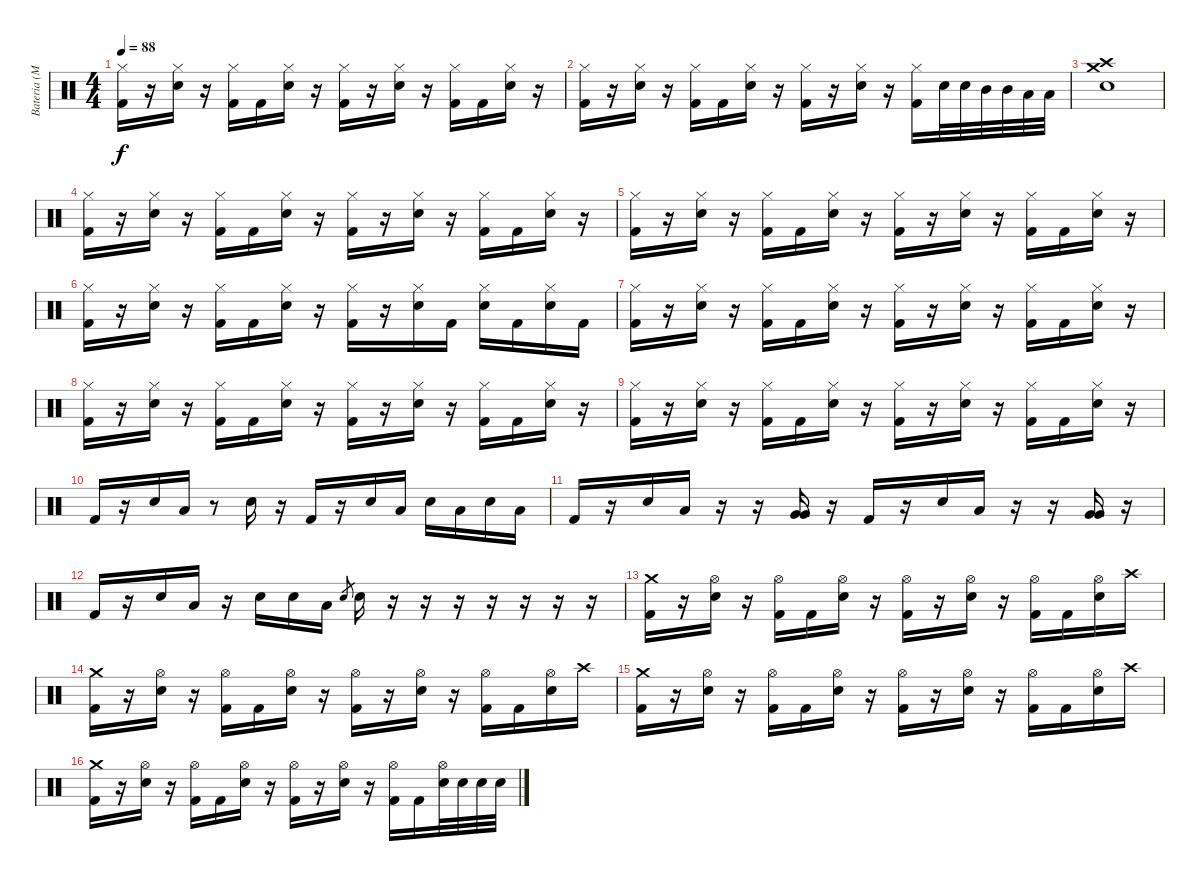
\track ("Bateria (Matt)" "Bateria (M") {instrument percussion}
\staff {score}
\articulation defaults
\ts (4 4)
\tempo 88
\clef neutral
\ks c
("Hi-Hat (closed)" "Kick (hit) 2").16{dy f} r.16 ("Hi-Hat (closed)" "Electric Snare (hit)").16 r.16 ("Hi-Hat (closed)" "Kick (hit) 2").16 "Kick (hit) 2".16 ("Hi-Hat (closed)" "Electric Snare (hit)").16 r.16 ("Hi-Hat (closed)" "Kick (hit) 2").16 r.16 ("Hi-Hat (closed)" "Electric Snare (hit)").16 r.16 ("Hi-Hat (closed)" "Kick (hit) 2").16 "Kick (hit) 2".16 ("Hi-Hat (closed)" "Electric Snare (hit)").16 r.16 |
("Hi-Hat (closed)" "Kick (hit) 2").16 r.16 ("Hi-Hat (closed)" "Electric Snare (hit)").16 r.16 ("Hi-Hat (closed)" "Kick (hit) 2").16 "Kick (hit) 2".16 ("Hi-Hat (closed)" "Electric Snare (hit)").16 r.16 ("Hi-Hat (closed)" "Kick (hit) 2").16 r.16 ("Hi-Hat (closed)" "Electric Snare (hit)").16 r.16 ("Hi-Hat (closed)" "Kick (hit) 2").16 "Electric Snare (hit)".32 "Electric Snare (hit)".32 "Mid Tom (hit)".32 "Mid Tom (hit)".32 "Low Tom (hit)".32 "Low Tom (hit)".32 |
("Crash medium (hit)" "Crash high (hit)" "Electric Snare (hit)").1 |
("Hi-Hat (closed)" "Kick (hit) 2").16 r.16 ("Hi-Hat (closed)" "Electric Snare (hit)").16 r.16 ("Hi-Hat (closed)" "Kick (hit) 2").16 "Kick (hit) 2".16 ("Hi-Hat (closed)" "Electric Snare (hit)").16 r.16 ("Hi-Hat (closed)" "Kick (hit) 2").16 r.16 ("Hi-Hat (closed)" "Electric Snare (hit)").16 r.16 ("Hi-Hat (closed)" "Kick (hit) 2").16 "Kick (hit) 2".16 ("Hi-Hat (closed)" "Electric Snare (hit)").16 r.16 |
("Hi-Hat (closed)" "Kick (hit) 2").16 r.16 ("Hi-Hat (closed)" "Electric Snare (hit)").16 r.16 ("Hi-Hat (closed)" "Kick (hit) 2").16 "Kick (hit) 2".16 ("Hi-Hat (closed)" "Electric Snare (hit)").16 r.16 ("Hi-Hat (closed)" "Kick (hit) 2").16 r.16 ("Hi-Hat (closed)" "Electric Snare (hit)").16 r.16 ("Hi-Hat (closed)" "Kick (hit) 2").16 "Kick (hit) 2".16 ("Hi-Hat (closed)" "Electric Snare (hit)").16 r.16 |
("Hi-Hat (closed)" "Kick (hit) 2").16 r.16 ("Hi-Hat (closed)" "Electric Snare (hit)").16 r.16 ("Hi-Hat (closed)" "Kick (hit) 2").16 "Kick (hit) 2".16 ("Hi-Hat (closed)" "Electric Snare (hit)").16 r.16 ("Hi-Hat (closed)" "Kick (hit) 2").16 r.16 ("Hi-Hat (closed)" "Electric Snare (hit)").16 "Kick (hit) 2".16 ("Hi-Hat (closed)" "Electric Snare (hit)").16 "Kick (hit) 2".16 ("Hi-Hat (closed)" "Electric Snare (hit)").16 "Kick (hit) 2".16 |
("Hi-Hat (closed)" "Kick (hit) 2").16 r.16 ("Hi-Hat (closed)" "Electric Snare (hit)").16 r.16 ("Hi-Hat (closed)" "Kick (hit) 2").16 "Kick (hit) 2".16 ("Hi-Hat (closed)" "Electric Snare (hit)").16 r.16 ("Hi-Hat (closed)" "Kick (hit) 2").16 r.16 ("Hi-Hat (closed)" "Electric Snare (hit)").16 r.16 ("Hi-Hat (closed)" "Kick (hit) 2").16 "Kick (hit) 2".16 ("Hi-Hat (closed)" "Electric Snare (hit)").16 r.16 |
("Hi-Hat (closed)" "Kick (hit) 2").16 r.16 ("Hi-Hat (closed)" "Electric Snare (hit)").16 r.16 ("Hi-Hat (closed)" "Kick (hit) 2").16 "Kick (hit) 2".16 ("Hi-Hat (closed)" "Electric Snare (hit)").16 r.16 ("Hi-Hat (closed)" "Kick (hit) 2").16 r.16 ("Hi-Hat (closed)" "Electric Snare (hit)").16 r.16 ("Hi-Hat (closed)" "Kick (hit) 2").16 "Kick (hit) 2".16 ("Hi-Hat (closed)" "Electric Snare (hit)").16 r.16 |
("Hi-Hat (closed)" "Kick (hit) 2").16 r.16 ("Hi-Hat (closed)" "Electric Snare (hit)").16 r.16 ("Hi-Hat (closed)" "Kick (hit) 2").16 "Kick (hit) 2".16 ("Hi-Hat (closed)" "Electric Snare (hit)").16 r.16 ("Hi-Hat (closed)" "Kick (hit) 2").16 r.16 ("Hi-Hat (closed)" "Electric Snare (hit)").16 r.16 ("Hi-Hat (closed)" "Kick (hit) 2").16 "Kick (hit) 2".16 ("Hi-Hat (closed)" "Electric Snare (hit)").16 r.16 |
"Kick (hit) 2".16 r.16 "Electric Snare (hit)".16 "Low Tom (hit)".16 r.8 "Electric Snare (hit)".16 r.16 "Kick (hit) 2".16 r.16 "Electric Snare (hit)".16 "Low Tom (hit)".16 "Electric Snare (hit)".16 "Low Tom (hit)".16 "Electric Snare (hit)".16 "Low Tom (hit)".16 |
"Kick (hit) 2".16 r.16 "Electric Snare (hit)".16 "Low Tom (hit)".16 r.16 r.16 ("Very Low Tom (hit)" "Very Low Tom (hit)").16 r.16 "Kick (hit) 2".16 r.16 "Electric Snare (hit)".16 "Low Tom (hit)".16 r.16 r.16 ("Very Low Tom (hit)" "Very Low Tom (hit)").16 r.16 |
"Kick (hit) 2".16 r.16 "Electric Snare (hit)".16 "Low Tom (hit)".16 r.16 "Electric Snare (hit)".16 "Electric Snare (hit)".16 "Low Tom (hit)".16 "Electric Snare (hit)".8{gr} "Electric Snare (hit)".16 r.16 r.16 r.16 r.16 r.16 r.16 r.16 |
("Crash medium (hit)" "Kick (hit) 2").16 r.16 ("Hi-Hat (open)" "Electric Snare (hit)").16 r.16 ("Hi-Hat (open)" "Kick (hit) 2").16 "Kick (hit) 2".16 ("Hi-Hat (open)" "Electric Snare (hit)").16 r.16 ("Hi-Hat (open)" "Kick (hit) 2").16 r.16 ("Hi-Hat (open)" "Electric Snare (hit)").16 r.16 ("Hi-Hat (open)" "Kick (hit) 2").16 "Kick (hit) 2".16 ("Hi-Hat (open)" "Electric Snare (hit)").16 "Crash high (hit)".16 |
("Crash medium (hit)" "Kick (hit) 2").16 r.16 ("Hi-Hat (open)" "Electric Snare (hit)").16 r.16 ("Hi-Hat (open)" "Kick (hit) 2").16 "Kick (hit) 2".16 ("Hi-Hat (open)" "Electric Snare (hit)").16 r.16 ("Hi-Hat (open)" "Kick (hit) 2").16 r.16 ("Hi-Hat (open)" "Electric Snare (hit)").16 r.16 ("Hi-Hat (open)" "Kick (hit) 2").16 "Kick (hit) 2".16 ("Hi-Hat (open)" "Electric Snare (hit)").16 "Crash high (hit)".16 |
("Crash medium (hit)" "Kick (hit) 2").16 r.16 ("Hi-Hat (open)" "Electric Snare (hit)").16 r.16 ("Hi-Hat (open)" "Kick (hit) 2").16 "Kick (hit) 2".16 ("Hi-Hat (open)" "Electric Snare (hit)").16 r.16 ("Hi-Hat (open)" "Kick (hit) 2").16 r.16 ("Hi-Hat (open)" "Electric Snare (hit)").16 r.16 ("Hi-Hat (open)" "Kick (hit) 2").16 "Kick (hit) 2".16 ("Hi-Hat (open)" "Electric Snare (hit)").16 "Crash high (hit)".16 |
("Crash medium (hit)" "Kick (hit) 2").16 r.16 ("Hi-Hat (open)" "Electric Snare (hit)").16 r.16 ("Hi-Hat (open)" "Kick (hit) 2").16 "Kick (hit) 2".16 ("Hi-Hat (open)" "Electric Snare (hit)").16 r.16 ("Hi-Hat (open)" "Kick (hit) 2").16 r.16 ("Hi-Hat (open)" "Electric Snare (hit)").16 r.16 ("Hi-Hat (open)" "Kick (hit) 2").16 "Kick (hit) 2".16 ("Hi-Hat (open)" "Electric Snare (hit)").32 "Electric Snare (hit)".32 "Electric Snare (hit)".32 "Electric Snare (hit)".32
